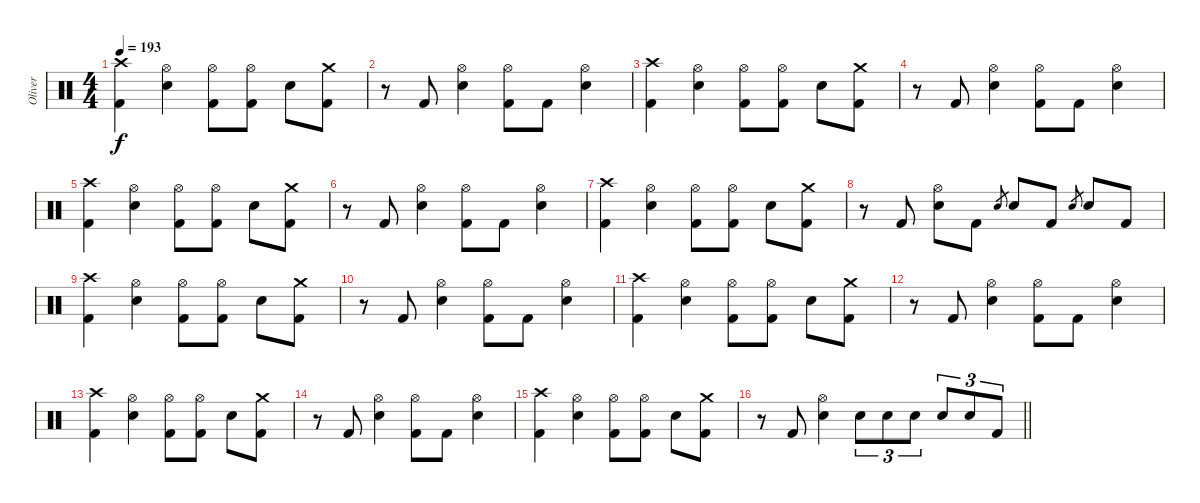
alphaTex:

\track ("Oliver" "Oliver") {instrument percussion}
\staff {score}
\articulation defaults
\ts (4 4)
\tempo 193
\clef neutral
\ks c
("Crash high (hit)" "Kick (hit) 2").4{dy f} ("Hi-Hat (open)" "Electric Snare (hit)").4 ("Hi-Hat (open)" "Kick (hit) 2").8 ("Hi-Hat (open)" "Kick (hit) 2").8 "Electric Snare (hit)".8 ("Crash medium (hit)" "Kick (hit) 2").8 |
r.8 "Kick (hit) 2".8 ("Hi-Hat (open)" "Electric Snare (hit)").4 ("Hi-Hat (open)" "Kick (hit) 2").8 "Kick (hit) 2".8 ("Hi-Hat (open)" "Electric Snare (hit)").4 |
("Crash high (hit)" "Kick (hit) 2").4 ("Hi-Hat (open)" "Electric Snare (hit)").4 ("Hi-Hat (open)" "Kick (hit) 2").8 ("Hi-Hat (open)" "Kick (hit) 2").8 "Electric Snare (hit)".8 ("Crash medium (hit)" "Kick (hit) 2").8 |
r.8 "Kick (hit) 2".8 ("Hi-Hat (open)" "Electric Snare (hit)").4 ("Hi-Hat (open)" "Kick (hit) 2").8 "Kick (hit) 2".8 ("Hi-Hat (open)" "Electric Snare (hit)").4 |
("Crash high (hit)" "Kick (hit) 2").4 ("Hi-Hat (open)" "Electric Snare (hit)").4 ("Hi-Hat (open)" "Kick (hit) 2").8 ("Hi-Hat (open)" "Kick (hit) 2").8 "Electric Snare (hit)".8 ("Crash medium (hit)" "Kick (hit) 2").8 |
r.8 "Kick (hit) 2".8 ("Hi-Hat (open)" "Electric Snare (hit)").4 ("Hi-Hat (open)" "Kick (hit) 2").8 "Kick (hit) 2".8 ("Hi-Hat (open)" "Electric Snare (hit)").4 |
("Crash high (hit)" "Kick (hit) 2").4 ("Hi-Hat (open)" "Electric Snare (hit)").4 ("Hi-Hat (open)" "Kick (hit) 2").8 ("Hi-Hat (open)" "Kick (hit) 2").8 "Electric Snare (hit)".8 ("Crash medium (hit)" "Kick (hit) 2").8 |
r.8 "Kick (hit) 2".8 ("Hi-Hat (open)" "Electric Snare (hit)").8 "Kick (hit) 2".8 "Electric Snare (hit)".8{gr} "Electric Snare (hit)".8 "Kick (hit) 2".8 "Electric Snare (hit)".8{gr} "Electric Snare (hit)".8 "Kick (hit) 2".8 |
("Crash high (hit)" "Kick (hit) 2").4 ("Hi-Hat (open)" "Electric Snare (hit)").4 ("Hi-Hat (open)" "Kick (hit) 2").8 ("Hi-Hat (open)" "Kick (hit) 2").8 "Electric Snare (hit)".8 ("Crash medium (hit)" "Kick (hit) 2").8 |
r.8 "Kick (hit) 2".8 ("Hi-Hat (open)" "Electric Snare (hit)").4 ("Hi-Hat (open)" "Kick (hit) 2").8 "Kick (hit) 2".8 ("Hi-Hat (open)" "Electric Snare (hit)").4 |
("Crash high (hit)" "Kick (hit) 2").4 ("Hi-Hat (open)" "Electric Snare (hit)").4 ("Hi-Hat (open)" "Kick (hit) 2").8 ("Hi-Hat (open)" "Kick (hit) 2").8 "Electric Snare (hit)".8 ("Crash medium (hit)" "Kick (hit) 2").8 |
r.8 "Kick (hit) 2".8 ("Hi-Hat (open)" "Electric Snare (hit)").4 ("Hi-Hat (open)" "Kick (hit) 2").8 "Kick (hit) 2".8 ("Hi-Hat (open)" "Electric Snare (hit)").4 |
("Crash high (hit)" "Kick (hit) 2").4 ("Hi-Hat (open)" "Electric Snare (hit)").4 ("Hi-Hat (open)" "Kick (hit) 2").8 ("Hi-Hat (open)" "Kick (hit) 2").8 "Electric Snare (hit)".8 ("Crash medium (hit)" "Kick (hit) 2").8 |
r.8 "Kick (hit) 2".8 ("Hi-Hat (open)" "Electric Snare (hit)").4 ("Hi-Hat (open)" "Kick (hit) 2").8 "Kick (hit) 2".8 ("Hi-Hat (open)" "Electric Snare (hit)").4 |
("Crash high (hit)" "Kick (hit) 2").4 ("Hi-Hat (open)" "Electric Snare (hit)").4 ("Hi-Hat (open)" "Kick (hit) 2").8 ("Hi-Hat (open)" "Kick (hit) 2").8 "Electric Snare (hit)".8 ("Crash medium (hit)" "Kick (hit) 2").8 |
\barLineRight lightlight
r.8 "Kick (hit) 2".8 ("Hi-Hat (open)" "Electric Snare (hit)").4 "Electric Snare (hit)".8{tu (3 2)} "Electric Snare (hit)".8{tu (3 2)} "Electric Snare (hit)".8{tu (3 2)} "Electric Snare (hit)".8{tu (3 2)} "Electric Snare (hit)".8{tu (3 2)} "Kick (hit) 2".8{tu (3 2)}
